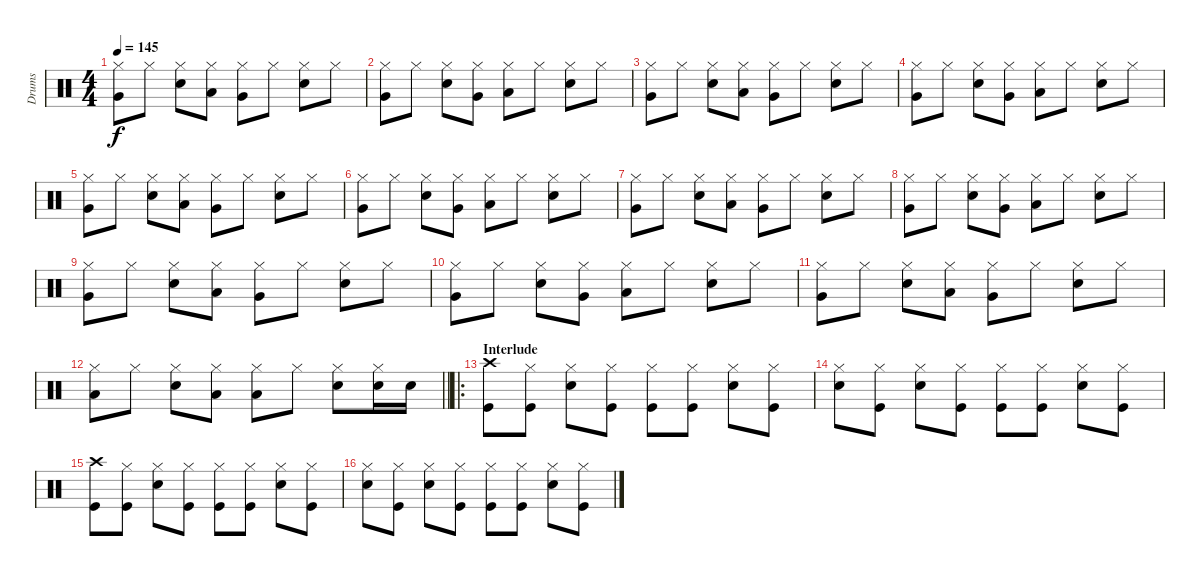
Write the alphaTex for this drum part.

\track ("Drums" "Drums") {instrument percussion}
\staff {score}
\articulation defaults
\ts (4 4)
\tempo 145
\clef neutral
\ks c
("Hi-Hat (closed)" "Very Low Tom (hit)").8{dy f} "Hi-Hat (closed)".8 ("Hi-Hat (closed)" "Snare (hit) 2").8 ("Hi-Hat (closed)" "Low Tom (hit)").8 ("Hi-Hat (closed)" "Very Low Tom (hit)").8 "Hi-Hat (closed)".8 ("Hi-Hat (closed)" "Snare (hit) 2").8 "Hi-Hat (closed)".8 |
("Hi-Hat (closed)" "Very Low Tom (hit)").8 "Hi-Hat (closed)".8 ("Hi-Hat (closed)" "Snare (hit) 2").8 ("Hi-Hat (closed)" "Very Low Tom (hit)").8 ("Hi-Hat (closed)" "Low Tom (hit)").8 "Hi-Hat (closed)".8 ("Hi-Hat (closed)" "Snare (hit) 2").8 "Hi-Hat (closed)".8 |
("Hi-Hat (closed)" "Very Low Tom (hit)").8 "Hi-Hat (closed)".8 ("Hi-Hat (closed)" "Snare (hit) 2").8 ("Hi-Hat (closed)" "Low Tom (hit)").8 ("Hi-Hat (closed)" "Very Low Tom (hit)").8 "Hi-Hat (closed)".8 ("Hi-Hat (closed)" "Snare (hit) 2").8 "Hi-Hat (closed)".8 |
("Hi-Hat (closed)" "Very Low Tom (hit)").8 "Hi-Hat (closed)".8 ("Hi-Hat (closed)" "Snare (hit) 2").8 ("Hi-Hat (closed)" "Very Low Tom (hit)").8 ("Hi-Hat (closed)" "Low Tom (hit)").8 "Hi-Hat (closed)".8 ("Hi-Hat (closed)" "Snare (hit) 2").8 "Hi-Hat (closed)".8 |
("Hi-Hat (closed)" "Very Low Tom (hit)").8 "Hi-Hat (closed)".8 ("Hi-Hat (closed)" "Snare (hit) 2").8 ("Hi-Hat (closed)" "Low Tom (hit)").8 ("Hi-Hat (closed)" "Very Low Tom (hit)").8 "Hi-Hat (closed)".8 ("Hi-Hat (closed)" "Snare (hit) 2").8 "Hi-Hat (closed)".8 |
("Hi-Hat (closed)" "Very Low Tom (hit)").8 "Hi-Hat (closed)".8 ("Hi-Hat (closed)" "Snare (hit) 2").8 ("Hi-Hat (closed)" "Very Low Tom (hit)").8 ("Hi-Hat (closed)" "Low Tom (hit)").8 "Hi-Hat (closed)".8 ("Hi-Hat (closed)" "Snare (hit) 2").8 "Hi-Hat (closed)".8 |
("Hi-Hat (closed)" "Very Low Tom (hit)").8 "Hi-Hat (closed)".8 ("Hi-Hat (closed)" "Snare (hit) 2").8 ("Hi-Hat (closed)" "Low Tom (hit)").8 ("Hi-Hat (closed)" "Very Low Tom (hit)").8 "Hi-Hat (closed)".8 ("Hi-Hat (closed)" "Snare (hit) 2").8 "Hi-Hat (closed)".8 |
("Hi-Hat (closed)" "Very Low Tom (hit)").8 "Hi-Hat (closed)".8 ("Hi-Hat (closed)" "Snare (hit) 2").8 ("Hi-Hat (closed)" "Very Low Tom (hit)").8 ("Hi-Hat (closed)" "Low Tom (hit)").8 "Hi-Hat (closed)".8 ("Hi-Hat (closed)" "Snare (hit) 2").8 "Hi-Hat (closed)".8 |
("Hi-Hat (closed)" "Very Low Tom (hit)").8 "Hi-Hat (closed)".8 ("Hi-Hat (closed)" "Snare (hit) 2").8 ("Hi-Hat (closed)" "Low Tom (hit)").8 ("Hi-Hat (closed)" "Very Low Tom (hit)").8 "Hi-Hat (closed)".8 ("Hi-Hat (closed)" "Snare (hit) 2").8 "Hi-Hat (closed)".8 |
("Hi-Hat (closed)" "Very Low Tom (hit)").8 "Hi-Hat (closed)".8 ("Hi-Hat (closed)" "Snare (hit) 2").8 ("Hi-Hat (closed)" "Very Low Tom (hit)").8 ("Hi-Hat (closed)" "Low Tom (hit)").8 "Hi-Hat (closed)".8 ("Hi-Hat (closed)" "Snare (hit) 2").8 "Hi-Hat (closed)".8 |
("Hi-Hat (closed)" "Very Low Tom (hit)").8 "Hi-Hat (closed)".8 ("Hi-Hat (closed)" "Snare (hit) 2").8 ("Hi-Hat (closed)" "Low Tom (hit)").8 ("Hi-Hat (closed)" "Very Low Tom (hit)").8 "Hi-Hat (closed)".8 ("Hi-Hat (closed)" "Snare (hit) 2").8 "Hi-Hat (closed)".8 |
\barLineRight lightlight
("Hi-Hat (closed)" "Low Floor Tom (hit)").8 "Hi-Hat (closed)".8 ("Hi-Hat (closed)" "Snare (hit) 2").8 ("Hi-Hat (closed)" "Low Floor Tom (hit)").8 ("Hi-Hat (closed)" "Low Floor Tom (hit)").8 "Hi-Hat (closed)".8 ("Hi-Hat (closed)" "Snare (hit) 2").8 ("Hi-Hat (closed)" "Snare (hit) 2").16 "Snare (hit) 2".16 |
\ro
\section ("" "Interlude")
("Crash high (hit)" "Kick (hit)").8 ("Hi-Hat (closed)" "Kick (hit)").8 ("Hi-Hat (closed)" "Snare (hit) 2").8 ("Hi-Hat (closed)" "Kick (hit)").8 ("Hi-Hat (closed)" "Kick (hit)").8 ("Hi-Hat (closed)" "Kick (hit)").8 ("Hi-Hat (closed)" "Snare (hit) 2").8 ("Hi-Hat (closed)" "Kick (hit)").8 |
("Hi-Hat (closed)" "Snare (hit) 2").8 ("Hi-Hat (closed)" "Kick (hit)").8 ("Hi-Hat (closed)" "Snare (hit) 2").8 ("Hi-Hat (closed)" "Kick (hit)").8 ("Hi-Hat (closed)" "Kick (hit)").8 ("Hi-Hat (closed)" "Kick (hit)").8 ("Hi-Hat (closed)" "Snare (hit) 2").8 ("Hi-Hat (closed)" "Kick (hit)").8 |
("Crash high (hit)" "Kick (hit)").8 ("Hi-Hat (closed)" "Kick (hit)").8 ("Hi-Hat (closed)" "Snare (hit) 2").8 ("Hi-Hat (closed)" "Kick (hit)").8 ("Hi-Hat (closed)" "Kick (hit)").8 ("Hi-Hat (closed)" "Kick (hit)").8 ("Hi-Hat (closed)" "Snare (hit) 2").8 ("Hi-Hat (closed)" "Kick (hit)").8 |
("Hi-Hat (closed)" "Snare (hit) 2").8 ("Hi-Hat (closed)" "Kick (hit)").8 ("Hi-Hat (closed)" "Snare (hit) 2").8 ("Hi-Hat (closed)" "Kick (hit)").8 ("Hi-Hat (closed)" "Kick (hit)").8 ("Hi-Hat (closed)" "Kick (hit)").8 ("Hi-Hat (closed)" "Snare (hit) 2").8 ("Hi-Hat (closed)" "Kick (hit)").8
